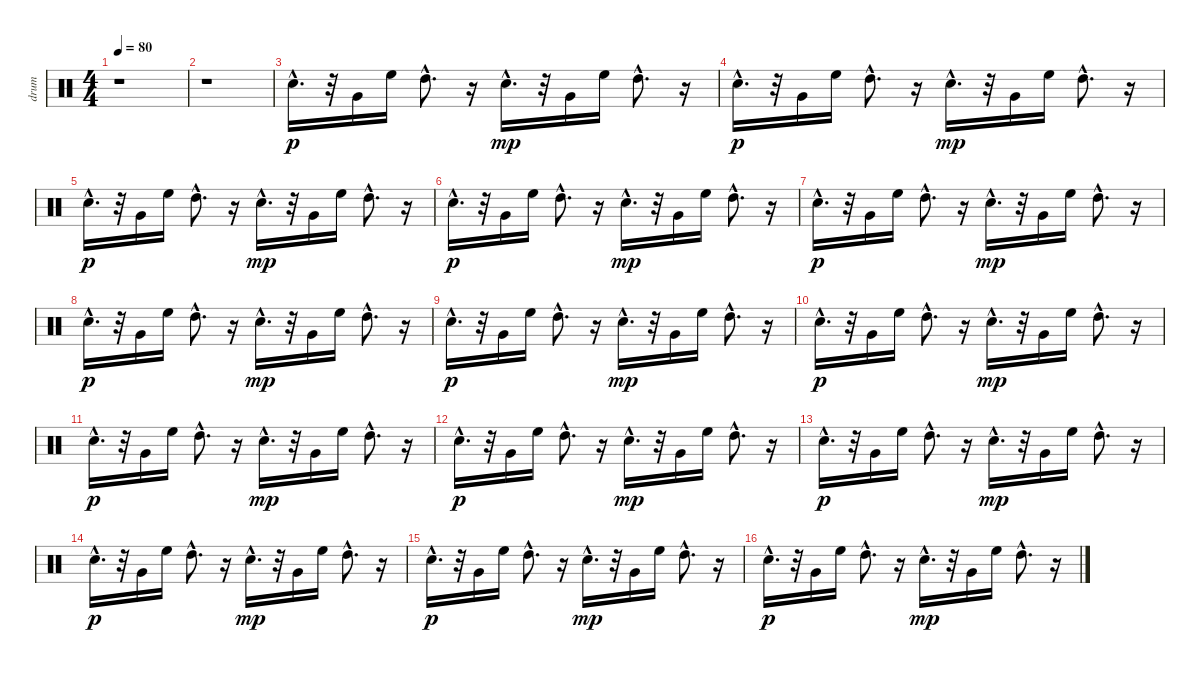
\track ("drum" "drum") {instrument percussion}
\staff {score}
\articulation defaults
\ts (4 4)
\tempo 80
\clef neutral
\ks c
r.1{dy mp} |
r.1 |
"Electric Snare (hit)"{hac}.16{d dy p} r.32 "Very Low Tom (hit)".16 "High Floor Tom (hit)".16 "High Tom (hit)"{hac}.8{d} r.16 "Electric Snare (hit)"{hac}.16{d dy mp} r.32 "Very Low Tom (hit)".16 "High Floor Tom (hit)".16 "High Tom (hit)"{hac}.8{d} r.16 |
"Electric Snare (hit)"{hac}.16{d dy p} r.32 "Very Low Tom (hit)".16 "High Floor Tom (hit)".16 "High Tom (hit)"{hac}.8{d} r.16 "Electric Snare (hit)"{hac}.16{d dy mp} r.32 "Very Low Tom (hit)".16 "High Floor Tom (hit)".16 "High Tom (hit)"{hac}.8{d} r.16 |
"Electric Snare (hit)"{hac}.16{d dy p} r.32 "Very Low Tom (hit)".16 "High Floor Tom (hit)".16 "High Tom (hit)"{hac}.8{d} r.16 "Electric Snare (hit)"{hac}.16{d dy mp} r.32 "Very Low Tom (hit)".16 "High Floor Tom (hit)".16 "High Tom (hit)"{hac}.8{d} r.16 |
"Electric Snare (hit)"{hac}.16{d dy p} r.32 "Very Low Tom (hit)".16 "High Floor Tom (hit)".16 "High Tom (hit)"{hac}.8{d} r.16 "Electric Snare (hit)"{hac}.16{d dy mp} r.32 "Very Low Tom (hit)".16 "High Floor Tom (hit)".16 "High Tom (hit)"{hac}.8{d} r.16 |
"Electric Snare (hit)"{hac}.16{d dy p} r.32 "Very Low Tom (hit)".16 "High Floor Tom (hit)".16 "High Tom (hit)"{hac}.8{d} r.16 "Electric Snare (hit)"{hac}.16{d dy mp} r.32 "Very Low Tom (hit)".16 "High Floor Tom (hit)".16 "High Tom (hit)"{hac}.8{d} r.16 |
"Electric Snare (hit)"{hac}.16{d dy p} r.32 "Very Low Tom (hit)".16 "High Floor Tom (hit)".16 "High Tom (hit)"{hac}.8{d} r.16 "Electric Snare (hit)"{hac}.16{d dy mp} r.32 "Very Low Tom (hit)".16 "High Floor Tom (hit)".16 "High Tom (hit)"{hac}.8{d} r.16 |
"Electric Snare (hit)"{hac}.16{d dy p} r.32 "Very Low Tom (hit)".16 "High Floor Tom (hit)".16 "High Tom (hit)"{hac}.8{d} r.16 "Electric Snare (hit)"{hac}.16{d dy mp} r.32 "Very Low Tom (hit)".16 "High Floor Tom (hit)".16 "High Tom (hit)"{hac}.8{d} r.16 |
"Electric Snare (hit)"{hac}.16{d dy p} r.32 "Very Low Tom (hit)".16 "High Floor Tom (hit)".16 "High Tom (hit)"{hac}.8{d} r.16 "Electric Snare (hit)"{hac}.16{d dy mp} r.32 "Very Low Tom (hit)".16 "High Floor Tom (hit)".16 "High Tom (hit)"{hac}.8{d} r.16 |
"Electric Snare (hit)"{hac}.16{d dy p} r.32 "Very Low Tom (hit)".16 "High Floor Tom (hit)".16 "High Tom (hit)"{hac}.8{d} r.16 "Electric Snare (hit)"{hac}.16{d dy mp} r.32 "Very Low Tom (hit)".16 "High Floor Tom (hit)".16 "High Tom (hit)"{hac}.8{d} r.16 |
"Electric Snare (hit)"{hac}.16{d dy p} r.32 "Very Low Tom (hit)".16 "High Floor Tom (hit)".16 "High Tom (hit)"{hac}.8{d} r.16 "Electric Snare (hit)"{hac}.16{d dy mp} r.32 "Very Low Tom (hit)".16 "High Floor Tom (hit)".16 "High Tom (hit)"{hac}.8{d} r.16 |
"Electric Snare (hit)"{hac}.16{d dy p} r.32 "Very Low Tom (hit)".16 "High Floor Tom (hit)".16 "High Tom (hit)"{hac}.8{d} r.16 "Electric Snare (hit)"{hac}.16{d dy mp} r.32 "Very Low Tom (hit)".16 "High Floor Tom (hit)".16 "High Tom (hit)"{hac}.8{d} r.16 |
"Electric Snare (hit)"{hac}.16{d dy p} r.32 "Very Low Tom (hit)".16 "High Floor Tom (hit)".16 "High Tom (hit)"{hac}.8{d} r.16 "Electric Snare (hit)"{hac}.16{d dy mp} r.32 "Very Low Tom (hit)".16 "High Floor Tom (hit)".16 "High Tom (hit)"{hac}.8{d} r.16 |
"Electric Snare (hit)"{hac}.16{d dy p} r.32 "Very Low Tom (hit)".16 "High Floor Tom (hit)".16 "High Tom (hit)"{hac}.8{d} r.16 "Electric Snare (hit)"{hac}.16{d dy mp} r.32 "Very Low Tom (hit)".16 "High Floor Tom (hit)".16 "High Tom (hit)"{hac}.8{d} r.16 |
"Electric Snare (hit)"{hac}.16{d dy p} r.32 "Very Low Tom (hit)".16 "High Floor Tom (hit)".16 "High Tom (hit)"{hac}.8{d} r.16 "Electric Snare (hit)"{hac}.16{d dy mp} r.32 "Very Low Tom (hit)".16 "High Floor Tom (hit)".16 "High Tom (hit)"{hac}.8{d} r.16
